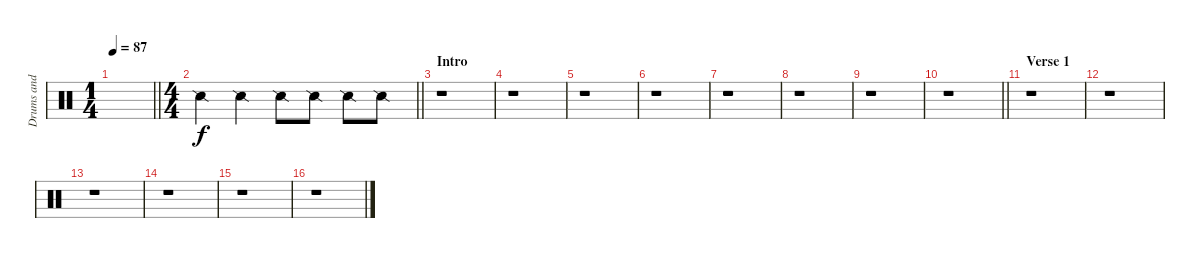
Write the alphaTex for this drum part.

\track ("Drums and Percussion" "Drums and ") {instrument percussion}
\staff {score}
\articulation defaults
\ts (1 4)
\tempo 87
\clef neutral
\barLineRight lightlight
\ks c
|
\ts (4 4)
\barLineRight lightlight "Snare (side stick) 2".4 "Snare (side stick) 2".4 "Snare (side stick) 2".8 "Snare (side stick) 2".8 "Snare (side stick) 2".8 "Snare (side stick) 2".8
|
\section ("" "Intro")
r.1 |
r.1 |
r.1 |
r.1 |
r.1 |
r.1 |
r.1 |
\barLineRight lightlight
r.1 |
\section ("" "Verse 1")
r.1 |
r.1 |
r.1 |
r.1 |
r.1 |
r.1
